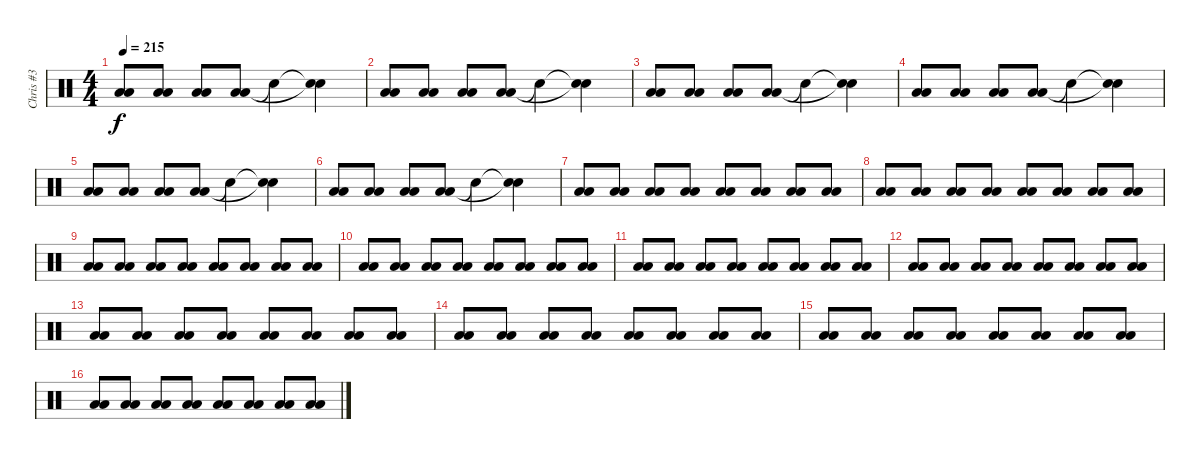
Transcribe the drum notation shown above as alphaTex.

\track ("Chris #3" "Chris #3") {instrument percussion}
\staff {score}
\articulation defaults
\ts (4 4)
\tempo 215
\clef neutral
\ks c
("Low Floor Tom (hit)" "Low Floor Tom (hit)").8{dy f} ("Low Floor Tom (hit)" "Low Floor Tom (hit)").8 ("Low Floor Tom (hit)" "Low Floor Tom (hit)").8 ("Low Floor Tom (hit)" "Low Floor Tom (hit)").8 "Snare (hit)"{t}.4 ("Snare (hit)"{t} "Snare (hit)"{t}).4 |
("Low Floor Tom (hit)" "Low Floor Tom (hit)").8 ("Low Floor Tom (hit)" "Low Floor Tom (hit)").8 ("Low Floor Tom (hit)" "Low Floor Tom (hit)").8 ("Low Floor Tom (hit)" "Low Floor Tom (hit)").8 "Snare (hit)"{t}.4 ("Snare (hit)"{t} "Snare (hit)"{t}).4 |
("Low Floor Tom (hit)" "Low Floor Tom (hit)").8 ("Low Floor Tom (hit)" "Low Floor Tom (hit)").8 ("Low Floor Tom (hit)" "Low Floor Tom (hit)").8 ("Low Floor Tom (hit)" "Low Floor Tom (hit)").8 "Snare (hit)"{t}.4 ("Snare (hit)"{t} "Snare (hit)"{t}).4 |
("Low Floor Tom (hit)" "Low Floor Tom (hit)").8 ("Low Floor Tom (hit)" "Low Floor Tom (hit)").8 ("Low Floor Tom (hit)" "Low Floor Tom (hit)").8 ("Low Floor Tom (hit)" "Low Floor Tom (hit)").8 "Snare (hit)"{t}.4 ("Snare (hit)"{t} "Snare (hit)"{t}).4 |
("Low Floor Tom (hit)" "Low Floor Tom (hit)").8 ("Low Floor Tom (hit)" "Low Floor Tom (hit)").8 ("Low Floor Tom (hit)" "Low Floor Tom (hit)").8 ("Low Floor Tom (hit)" "Low Floor Tom (hit)").8 "Snare (hit)"{t}.4 ("Snare (hit)"{t} "Snare (hit)"{t}).4 |
("Low Floor Tom (hit)" "Low Floor Tom (hit)").8 ("Low Floor Tom (hit)" "Low Floor Tom (hit)").8 ("Low Floor Tom (hit)" "Low Floor Tom (hit)").8 ("Low Floor Tom (hit)" "Low Floor Tom (hit)").8 "Snare (hit)"{t}.4 ("Snare (hit)"{t} "Snare (hit)"{t}).4 |
("Low Floor Tom (hit)" "Low Floor Tom (hit)").8 ("Low Floor Tom (hit)" "Low Floor Tom (hit)").8 ("Low Floor Tom (hit)" "Low Floor Tom (hit)").8 ("Low Floor Tom (hit)" "Low Floor Tom (hit)").8 ("Low Floor Tom (hit)" "Low Floor Tom (hit)").8 ("Low Floor Tom (hit)" "Low Floor Tom (hit)").8 ("Low Floor Tom (hit)" "Low Floor Tom (hit)").8 ("Low Floor Tom (hit)" "Low Floor Tom (hit)").8 |
("Low Floor Tom (hit)" "Low Floor Tom (hit)").8 ("Low Floor Tom (hit)" "Low Floor Tom (hit)").8 ("Low Floor Tom (hit)" "Low Floor Tom (hit)").8 ("Low Floor Tom (hit)" "Low Floor Tom (hit)").8 ("Low Floor Tom (hit)" "Low Floor Tom (hit)").8 ("Low Floor Tom (hit)" "Low Floor Tom (hit)").8 ("Low Floor Tom (hit)" "Low Floor Tom (hit)").8 ("Low Floor Tom (hit)" "Low Floor Tom (hit)").8 |
("Low Floor Tom (hit)" "Low Floor Tom (hit)").8 ("Low Floor Tom (hit)" "Low Floor Tom (hit)").8 ("Low Floor Tom (hit)" "Low Floor Tom (hit)").8 ("Low Floor Tom (hit)" "Low Floor Tom (hit)").8 ("Low Floor Tom (hit)" "Low Floor Tom (hit)").8 ("Low Floor Tom (hit)" "Low Floor Tom (hit)").8 ("Low Floor Tom (hit)" "Low Floor Tom (hit)").8 ("Low Floor Tom (hit)" "Low Floor Tom (hit)").8 |
("Low Floor Tom (hit)" "Low Floor Tom (hit)").8 ("Low Floor Tom (hit)" "Low Floor Tom (hit)").8 ("Low Floor Tom (hit)" "Low Floor Tom (hit)").8 ("Low Floor Tom (hit)" "Low Floor Tom (hit)").8 ("Low Floor Tom (hit)" "Low Floor Tom (hit)").8 ("Low Floor Tom (hit)" "Low Floor Tom (hit)").8 ("Low Floor Tom (hit)" "Low Floor Tom (hit)").8 ("Low Floor Tom (hit)" "Low Floor Tom (hit)").8 |
("Low Floor Tom (hit)" "Low Floor Tom (hit)").8 ("Low Floor Tom (hit)" "Low Floor Tom (hit)").8 ("Low Floor Tom (hit)" "Low Floor Tom (hit)").8 ("Low Floor Tom (hit)" "Low Floor Tom (hit)").8 ("Low Floor Tom (hit)" "Low Floor Tom (hit)").8 ("Low Floor Tom (hit)" "Low Floor Tom (hit)").8 ("Low Floor Tom (hit)" "Low Floor Tom (hit)").8 ("Low Floor Tom (hit)" "Low Floor Tom (hit)").8 |
("Low Floor Tom (hit)" "Low Floor Tom (hit)").8 ("Low Floor Tom (hit)" "Low Floor Tom (hit)").8 ("Low Floor Tom (hit)" "Low Floor Tom (hit)").8 ("Low Floor Tom (hit)" "Low Floor Tom (hit)").8 ("Low Floor Tom (hit)" "Low Floor Tom (hit)").8 ("Low Floor Tom (hit)" "Low Floor Tom (hit)").8 ("Low Floor Tom (hit)" "Low Floor Tom (hit)").8 ("Low Floor Tom (hit)" "Low Floor Tom (hit)").8 |
("Low Floor Tom (hit)" "Low Floor Tom (hit)").8 ("Low Floor Tom (hit)" "Low Floor Tom (hit)").8 ("Low Floor Tom (hit)" "Low Floor Tom (hit)").8 ("Low Floor Tom (hit)" "Low Floor Tom (hit)").8 ("Low Floor Tom (hit)" "Low Floor Tom (hit)").8 ("Low Floor Tom (hit)" "Low Floor Tom (hit)").8 ("Low Floor Tom (hit)" "Low Floor Tom (hit)").8 ("Low Floor Tom (hit)" "Low Floor Tom (hit)").8 |
("Low Floor Tom (hit)" "Low Floor Tom (hit)").8 ("Low Floor Tom (hit)" "Low Floor Tom (hit)").8 ("Low Floor Tom (hit)" "Low Floor Tom (hit)").8 ("Low Floor Tom (hit)" "Low Floor Tom (hit)").8 ("Low Floor Tom (hit)" "Low Floor Tom (hit)").8 ("Low Floor Tom (hit)" "Low Floor Tom (hit)").8 ("Low Floor Tom (hit)" "Low Floor Tom (hit)").8 ("Low Floor Tom (hit)" "Low Floor Tom (hit)").8 |
("Low Floor Tom (hit)" "Low Floor Tom (hit)").8 ("Low Floor Tom (hit)" "Low Floor Tom (hit)").8 ("Low Floor Tom (hit)" "Low Floor Tom (hit)").8 ("Low Floor Tom (hit)" "Low Floor Tom (hit)").8 ("Low Floor Tom (hit)" "Low Floor Tom (hit)").8 ("Low Floor Tom (hit)" "Low Floor Tom (hit)").8 ("Low Floor Tom (hit)" "Low Floor Tom (hit)").8 ("Low Floor Tom (hit)" "Low Floor Tom (hit)").8 |
("Low Floor Tom (hit)" "Low Floor Tom (hit)").8 ("Low Floor Tom (hit)" "Low Floor Tom (hit)").8 ("Low Floor Tom (hit)" "Low Floor Tom (hit)").8 ("Low Floor Tom (hit)" "Low Floor Tom (hit)").8 ("Low Floor Tom (hit)" "Low Floor Tom (hit)").8 ("Low Floor Tom (hit)" "Low Floor Tom (hit)").8 ("Low Floor Tom (hit)" "Low Floor Tom (hit)").8 ("Low Floor Tom (hit)" "Low Floor Tom (hit)").8
